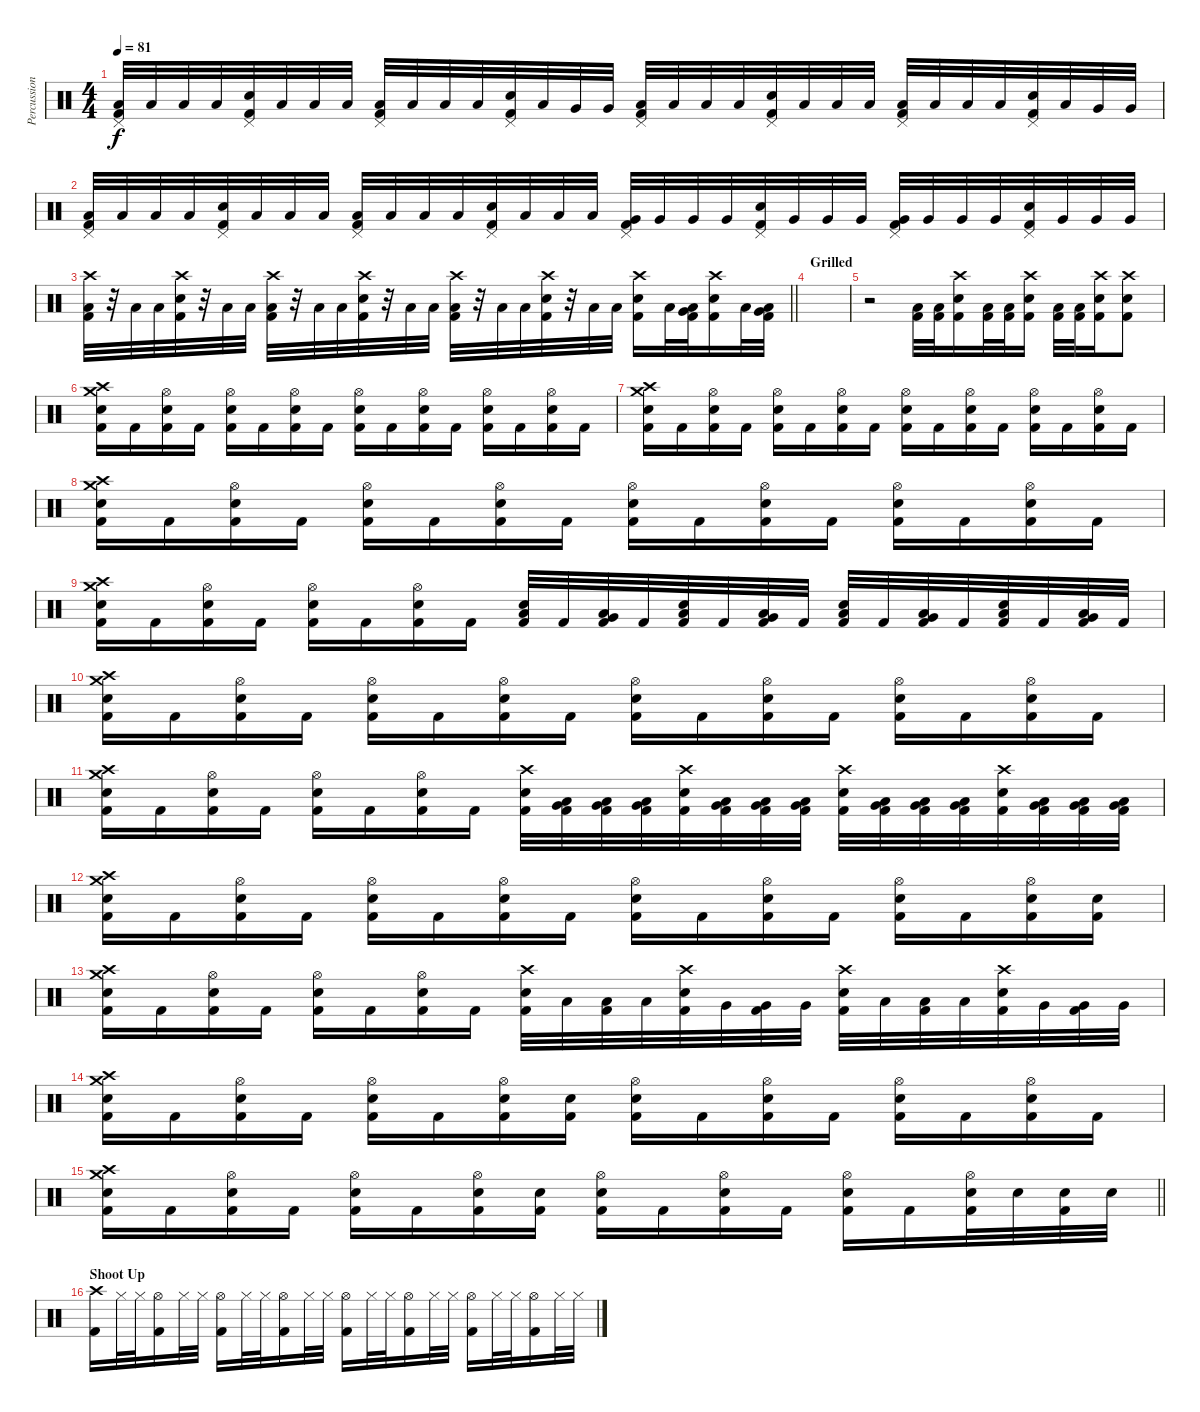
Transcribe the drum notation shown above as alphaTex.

\track ("Percussion" "Percussion") {instrument percussion}
\staff {score}
\articulation defaults
\ts (4 4)
\tempo 81
\clef neutral
\ks c
("Pedal Hi-Hat (hit)" "Low Floor Tom (hit)" "Kick (hit) 2").32{dy f} "Low Floor Tom (hit)".32 "Low Floor Tom (hit)".32 "Low Floor Tom (hit)".32 ("Pedal Hi-Hat (hit)" "Electric Snare (hit)" "Kick (hit) 2").32 "Low Floor Tom (hit)".32 "Low Floor Tom (hit)".32 "Low Floor Tom (hit)".32 ("Pedal Hi-Hat (hit)" "Low Floor Tom (hit)" "Kick (hit) 2").32 "Low Floor Tom (hit)".32 "Low Floor Tom (hit)".32 "Low Floor Tom (hit)".32 ("Pedal Hi-Hat (hit)" "Electric Snare (hit)" "Kick (hit) 2").32 "Low Floor Tom (hit)".32 "Very Low Tom (hit)".32 "Very Low Tom (hit)".32 ("Pedal Hi-Hat (hit)" "Low Floor Tom (hit)" "Kick (hit) 2").32 "Low Floor Tom (hit)".32 "Low Floor Tom (hit)".32 "Low Floor Tom (hit)".32 ("Pedal Hi-Hat (hit)" "Electric Snare (hit)" "Kick (hit) 2").32 "Low Floor Tom (hit)".32 "Low Floor Tom (hit)".32 "Low Floor Tom (hit)".32 ("Pedal Hi-Hat (hit)" "Low Floor Tom (hit)" "Kick (hit) 2").32 "Low Floor Tom (hit)".32 "Low Floor Tom (hit)".32 "Low Floor Tom (hit)".32 ("Pedal Hi-Hat (hit)" "Electric Snare (hit)" "Kick (hit) 2").32 "Low Floor Tom (hit)".32 "Very Low Tom (hit)".32 "Very Low Tom (hit)".32 |
("Pedal Hi-Hat (hit)" "Low Tom (hit)" "Kick (hit) 2").32 "Low Tom (hit)".32 "Low Tom (hit)".32 "Low Tom (hit)".32 ("Pedal Hi-Hat (hit)" "Electric Snare (hit)" "Kick (hit) 2").32 "Low Tom (hit)".32 "Low Tom (hit)".32 "Low Tom (hit)".32 ("Pedal Hi-Hat (hit)" "Low Tom (hit)" "Kick (hit) 2").32 "Low Tom (hit)".32 "Low Tom (hit)".32 "Low Tom (hit)".32 ("Pedal Hi-Hat (hit)" "Electric Snare (hit)" "Kick (hit) 2").32 "Low Tom (hit)".32 "Low Tom (hit)".32 "Low Tom (hit)".32 ("Pedal Hi-Hat (hit)" "Very Low Tom (hit)" "Kick (hit) 2").32 "Very Low Tom (hit)".32 "Very Low Tom (hit)".32 "Very Low Tom (hit)".32 ("Pedal Hi-Hat (hit)" "Electric Snare (hit)" "Kick (hit) 2").32 "Very Low Tom (hit)".32 "Very Low Tom (hit)".32 "Very Low Tom (hit)".32 ("Pedal Hi-Hat (hit)" "Very Low Tom (hit)" "Kick (hit) 2").32 "Very Low Tom (hit)".32 "Very Low Tom (hit)".32 "Very Low Tom (hit)".32 ("Pedal Hi-Hat (hit)" "Electric Snare (hit)" "Kick (hit) 2").32 "Very Low Tom (hit)".32 "Very Low Tom (hit)".32 "Very Low Tom (hit)".32 |
\barLineRight lightlight
("Crash high (hit)" "Low Floor Tom (hit)" "Kick (hit) 2").32 r.32 "Low Floor Tom (hit)".32 "Low Floor Tom (hit)".32 ("Crash high (hit)" "Electric Snare (hit)" "Kick (hit) 2").32 r.32 "Low Floor Tom (hit)".32 "Low Floor Tom (hit)".32 ("Crash high (hit)" "Low Floor Tom (hit)" "Kick (hit) 2").32 r.32 "Low Floor Tom (hit)".32 "Low Floor Tom (hit)".32 ("Crash high (hit)" "Electric Snare (hit)" "Kick (hit) 2").32 r.32 "Low Floor Tom (hit)".32 "Low Floor Tom (hit)".32 ("Crash high (hit)" "Low Floor Tom (hit)" "Kick (hit) 2").32 r.32 "Low Floor Tom (hit)".32 "Low Floor Tom (hit)".32 ("Crash high (hit)" "Electric Snare (hit)" "Kick (hit) 2").32 r.32 "Low Floor Tom (hit)".32 "Low Floor Tom (hit)".32 ("Crash high (hit)" "Electric Snare (hit)" "Kick (hit) 2").16 "Low Floor Tom (hit)".32 ("Very Low Tom (hit)" "Low Floor Tom (hit)" "Kick (hit) 2").32 ("Crash high (hit)" "Electric Snare (hit)" "Kick (hit) 2").16 "Low Floor Tom (hit)".32 ("Very Low Tom (hit)" "Low Floor Tom (hit)" "Kick (hit) 2").32 |
\section ("" "Grilled")
|
r.2 ("Low Floor Tom (hit)" "Kick (hit) 2").32 ("Low Floor Tom (hit)" "Kick (hit) 2").32 ("Crash high (hit)" "Electric Snare (hit)" "Kick (hit) 2").16 ("Low Floor Tom (hit)" "Kick (hit) 2").32 ("Low Floor Tom (hit)" "Kick (hit) 2").32 ("Crash high (hit)" "Electric Snare (hit)" "Kick (hit) 2").16 ("Low Floor Tom (hit)" "Kick (hit) 2").32 ("Low Floor Tom (hit)" "Kick (hit) 2").32 ("Crash high (hit)" "Electric Snare (hit)" "Kick (hit) 2").16 ("Crash high (hit)" "Electric Snare (hit)" "Kick (hit) 2").8 |
("Crash high (hit)" "Crash medium (hit)" "Electric Snare (hit)" "Kick (hit) 2").16 "Kick (hit) 2".16 ("Hi-Hat (open)" "Electric Snare (hit)" "Kick (hit) 2").16 "Kick (hit) 2".16 ("Hi-Hat (open)" "Electric Snare (hit)" "Kick (hit) 2").16 "Kick (hit) 2".16 ("Hi-Hat (open)" "Electric Snare (hit)" "Kick (hit) 2").16 "Kick (hit) 2".16 ("Hi-Hat (open)" "Electric Snare (hit)" "Kick (hit) 2").16 "Kick (hit) 2".16 ("Hi-Hat (open)" "Electric Snare (hit)" "Kick (hit) 2").16 "Kick (hit) 2".16 ("Hi-Hat (open)" "Electric Snare (hit)" "Kick (hit) 2").16 "Kick (hit) 2".16 ("Hi-Hat (open)" "Electric Snare (hit)" "Kick (hit) 2").16 "Kick (hit) 2".16 |
("Crash high (hit)" "Crash medium (hit)" "Electric Snare (hit)" "Kick (hit) 2").16 "Kick (hit) 2".16 ("Hi-Hat (open)" "Electric Snare (hit)" "Kick (hit) 2").16 "Kick (hit) 2".16 ("Hi-Hat (open)" "Electric Snare (hit)" "Kick (hit) 2").16 "Kick (hit) 2".16 ("Hi-Hat (open)" "Electric Snare (hit)" "Kick (hit) 2").16 "Kick (hit) 2".16 ("Hi-Hat (open)" "Electric Snare (hit)" "Kick (hit) 2").16 "Kick (hit) 2".16 ("Hi-Hat (open)" "Electric Snare (hit)" "Kick (hit) 2").16 "Kick (hit) 2".16 ("Hi-Hat (open)" "Electric Snare (hit)" "Kick (hit) 2").16 "Kick (hit) 2".16 ("Hi-Hat (open)" "Electric Snare (hit)" "Kick (hit) 2").16 "Kick (hit) 2".16 |
("Crash high (hit)" "Crash medium (hit)" "Electric Snare (hit)" "Kick (hit) 2").16 "Kick (hit) 2".16 ("Hi-Hat (open)" "Electric Snare (hit)" "Kick (hit) 2").16 "Kick (hit) 2".16 ("Hi-Hat (open)" "Electric Snare (hit)" "Kick (hit) 2").16 "Kick (hit) 2".16 ("Hi-Hat (open)" "Electric Snare (hit)" "Kick (hit) 2").16 "Kick (hit) 2".16 ("Hi-Hat (open)" "Electric Snare (hit)" "Kick (hit) 2").16 "Kick (hit) 2".16 ("Hi-Hat (open)" "Electric Snare (hit)" "Kick (hit) 2").16 "Kick (hit) 2".16 ("Hi-Hat (open)" "Electric Snare (hit)" "Kick (hit) 2").16 "Kick (hit) 2".16 ("Hi-Hat (open)" "Electric Snare (hit)" "Kick (hit) 2").16 "Kick (hit) 2".16 |
("Crash high (hit)" "Crash medium (hit)" "Electric Snare (hit)" "Kick (hit) 2").16 "Kick (hit) 2".16 ("Hi-Hat (open)" "Electric Snare (hit)" "Kick (hit) 2").16 "Kick (hit) 2".16 ("Hi-Hat (open)" "Electric Snare (hit)" "Kick (hit) 2").16 "Kick (hit) 2".16 ("Hi-Hat (open)" "Electric Snare (hit)" "Kick (hit) 2").16 "Kick (hit) 2".16 ("Low Floor Tom (hit)" "Electric Snare (hit)" "Kick (hit) 2").32 "Kick (hit) 2".32 ("Very Low Tom (hit)" "Low Floor Tom (hit)" "Kick (hit) 2").32 "Kick (hit) 2".32 ("Low Floor Tom (hit)" "Electric Snare (hit)" "Kick (hit) 2").32 "Kick (hit) 2".32 ("Very Low Tom (hit)" "Low Floor Tom (hit)" "Kick (hit) 2").32 "Kick (hit) 2".32 ("Low Floor Tom (hit)" "Electric Snare (hit)" "Kick (hit) 2").32 "Kick (hit) 2".32 ("Very Low Tom (hit)" "Low Floor Tom (hit)" "Kick (hit) 2").32 "Kick (hit) 2".32 ("Low Floor Tom (hit)" "Electric Snare (hit)" "Kick (hit) 2").32 "Kick (hit) 2".32 ("Very Low Tom (hit)" "Low Floor Tom (hit)" "Kick (hit) 2").32 "Kick (hit) 2".32 |
("Crash high (hit)" "Crash medium (hit)" "Electric Snare (hit)" "Kick (hit) 2").16 "Kick (hit) 2".16 ("Hi-Hat (open)" "Electric Snare (hit)" "Kick (hit) 2").16 "Kick (hit) 2".16 ("Hi-Hat (open)" "Electric Snare (hit)" "Kick (hit) 2").16 "Kick (hit) 2".16 ("Hi-Hat (open)" "Electric Snare (hit)" "Kick (hit) 2").16 "Kick (hit) 2".16 ("Hi-Hat (open)" "Electric Snare (hit)" "Kick (hit) 2").16 "Kick (hit) 2".16 ("Hi-Hat (open)" "Electric Snare (hit)" "Kick (hit) 2").16 "Kick (hit) 2".16 ("Hi-Hat (open)" "Electric Snare (hit)" "Kick (hit) 2").16 "Kick (hit) 2".16 ("Hi-Hat (open)" "Electric Snare (hit)" "Kick (hit) 2").16 "Kick (hit) 2".16 |
("Crash high (hit)" "Crash medium (hit)" "Electric Snare (hit)" "Kick (hit) 2").16 "Kick (hit) 2".16 ("Hi-Hat (open)" "Electric Snare (hit)" "Kick (hit) 2").16 "Kick (hit) 2".16 ("Hi-Hat (open)" "Electric Snare (hit)" "Kick (hit) 2").16 "Kick (hit) 2".16 ("Hi-Hat (open)" "Electric Snare (hit)" "Kick (hit) 2").16 "Kick (hit) 2".16 ("Crash high (hit)" "Electric Snare (hit)" "Kick (hit) 2").32 ("Very Low Tom (hit)" "Low Floor Tom (hit)" "Kick (hit) 2").32 ("Very Low Tom (hit)" "Low Floor Tom (hit)" "Kick (hit) 2").32 ("Very Low Tom (hit)" "Low Floor Tom (hit)" "Kick (hit) 2").32 ("Crash high (hit)" "Electric Snare (hit)" "Kick (hit) 2").32 ("Very Low Tom (hit)" "Low Floor Tom (hit)" "Kick (hit) 2").32 ("Very Low Tom (hit)" "Low Floor Tom (hit)" "Kick (hit) 2").32 ("Low Tom (hit)" "Very Low Tom (hit)" "Kick (hit) 2").32 ("Crash high (hit)" "Electric Snare (hit)" "Kick (hit) 2").32 ("Very Low Tom (hit)" "Low Floor Tom (hit)" "Kick (hit) 2").32 ("Very Low Tom (hit)" "Low Floor Tom (hit)" "Kick (hit) 2").32 ("Low Tom (hit)" "Very Low Tom (hit)" "Kick (hit) 2").32 ("Crash high (hit)" "Electric Snare (hit)" "Kick (hit) 2").32 ("Very Low Tom (hit)" "Low Floor Tom (hit)" "Kick (hit) 2").32 ("Very Low Tom (hit)" "Low Floor Tom (hit)" "Kick (hit) 2").32 ("Very Low Tom (hit)" "Low Floor Tom (hit)" "Kick (hit) 2").32 |
("Crash high (hit)" "Crash medium (hit)" "Electric Snare (hit)" "Kick (hit) 2").16 "Kick (hit) 2".16 ("Hi-Hat (open)" "Electric Snare (hit)" "Kick (hit) 2").16 "Kick (hit) 2".16 ("Hi-Hat (open)" "Electric Snare (hit)" "Kick (hit) 2").16 "Kick (hit) 2".16 ("Hi-Hat (open)" "Electric Snare (hit)" "Kick (hit) 2").16 "Kick (hit) 2".16 ("Hi-Hat (open)" "Electric Snare (hit)" "Kick (hit) 2").16 "Kick (hit) 2".16 ("Hi-Hat (open)" "Electric Snare (hit)" "Kick (hit) 2").16 "Kick (hit) 2".16 ("Hi-Hat (open)" "Electric Snare (hit)" "Kick (hit) 2").16 "Kick (hit) 2".16 ("Hi-Hat (open)" "Electric Snare (hit)" "Kick (hit) 2").16 ("Electric Snare (hit)" "Kick (hit) 2").16 |
("Crash high (hit)" "Crash medium (hit)" "Electric Snare (hit)" "Kick (hit) 2").16 "Kick (hit) 2".16 ("Hi-Hat (open)" "Electric Snare (hit)" "Kick (hit) 2").16 "Kick (hit) 2".16 ("Hi-Hat (open)" "Electric Snare (hit)" "Kick (hit) 2").16 "Kick (hit) 2".16 ("Hi-Hat (open)" "Electric Snare (hit)" "Kick (hit) 2").16 "Kick (hit) 2".16 ("Crash high (hit)" "Electric Snare (hit)" "Kick (hit) 2").32 "Low Tom (hit)".32 ("Low Tom (hit)" "Kick (hit) 2").32 "Low Tom (hit)".32 ("Crash high (hit)" "Electric Snare (hit)" "Kick (hit) 2").32 "Very Low Tom (hit)".32 ("Very Low Tom (hit)" "Kick (hit) 2").32 "Very Low Tom (hit)".32 ("Crash high (hit)" "Electric Snare (hit)" "Kick (hit) 2").32 "Low Floor Tom (hit)".32 ("Low Floor Tom (hit)" "Kick (hit) 2").32 "Low Floor Tom (hit)".32 ("Crash high (hit)" "Electric Snare (hit)" "Kick (hit) 2").32 "Very Low Tom (hit)".32 ("Very Low Tom (hit)" "Kick (hit) 2").32 "Very Low Tom (hit)".32 |
("Crash high (hit)" "Crash medium (hit)" "Electric Snare (hit)" "Kick (hit) 2").16 "Kick (hit) 2".16 ("Hi-Hat (open)" "Electric Snare (hit)" "Kick (hit) 2").16 "Kick (hit) 2".16 ("Hi-Hat (open)" "Electric Snare (hit)" "Kick (hit) 2").16 "Kick (hit) 2".16 ("Hi-Hat (open)" "Electric Snare (hit)" "Kick (hit) 2").16 ("Electric Snare (hit)" "Kick (hit) 2").16 ("Hi-Hat (open)" "Electric Snare (hit)" "Kick (hit) 2").16 "Kick (hit) 2".16 ("Hi-Hat (open)" "Electric Snare (hit)" "Kick (hit) 2").16 "Kick (hit) 2".16 ("Hi-Hat (open)" "Electric Snare (hit)" "Kick (hit) 2").16 "Kick (hit) 2".16 ("Hi-Hat (open)" "Electric Snare (hit)" "Kick (hit) 2").16 "Kick (hit) 2".16 |
\barLineRight lightlight
("Crash high (hit)" "Crash medium (hit)" "Electric Snare (hit)" "Kick (hit) 2").16 "Kick (hit) 2".16 ("Hi-Hat (open)" "Electric Snare (hit)" "Kick (hit) 2").16 "Kick (hit) 2".16 ("Hi-Hat (open)" "Electric Snare (hit)" "Kick (hit) 2").16 "Kick (hit) 2".16 ("Hi-Hat (open)" "Electric Snare (hit)" "Kick (hit) 2").16 ("Electric Snare (hit)" "Kick (hit) 2").16 ("Hi-Hat (open)" "Electric Snare (hit)" "Kick (hit) 2").16 "Kick (hit) 2".16 ("Hi-Hat (open)" "Electric Snare (hit)" "Kick (hit) 2").16 "Kick (hit) 2".16 ("Hi-Hat (open)" "Electric Snare (hit)" "Kick (hit) 2").16 "Kick (hit) 2".16 ("Hi-Hat (open)" "Electric Snare (hit)" "Kick (hit) 2").32 "Electric Snare (hit)".32 ("Electric Snare (hit)" "Kick (hit) 2").32 "Electric Snare (hit)".32 |
\section ("" "Shoot Up")
("Crash high (hit)" "Kick (hit) 2").16 "Hi-Hat (closed)".32 "Hi-Hat (closed)".32 ("Hi-Hat (open)" "Kick (hit) 2").16 "Hi-Hat (closed)".32 "Hi-Hat (closed)".32 ("Hi-Hat (open)" "Kick (hit) 2").16 "Hi-Hat (closed)".32 "Hi-Hat (closed)".32 ("Hi-Hat (open)" "Kick (hit) 2").16 "Hi-Hat (closed)".32 "Hi-Hat (closed)".32 ("Hi-Hat (open)" "Kick (hit) 2").16 "Hi-Hat (closed)".32 "Hi-Hat (closed)".32 ("Hi-Hat (open)" "Kick (hit) 2").16 "Hi-Hat (closed)".32 "Hi-Hat (closed)".32 ("Hi-Hat (open)" "Kick (hit) 2").16 "Hi-Hat (closed)".32 "Hi-Hat (closed)".32 ("Hi-Hat (open)" "Kick (hit) 2").16 "Hi-Hat (closed)".32 "Hi-Hat (closed)".32
